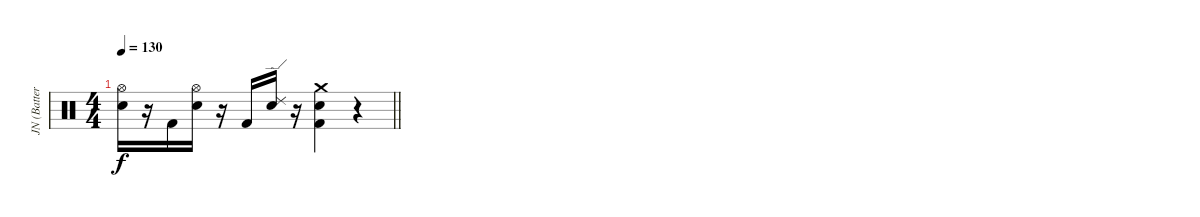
\track ("JN (Batterie)" "JN (Batter") {instrument percussion}
\staff {score}
\articulation defaults
\ts (4 4)
\tempo 130
\clef neutral
\barLineRight lightlight
\ks c
("Hi-Hat (open)" "Electric Snare (hit)").16{dy f} r.16 "Kick (hit) 2".16 ("Hi-Hat (open)" "Electric Snare (hit)").16 r.16 "Kick (hit) 2".16 ("Ride (edge) 2" "Electric Snare (hit)").16 r.16 ("Crash medium (hit)" "Electric Snare (hit)" "Kick (hit) 2").4 r.4
